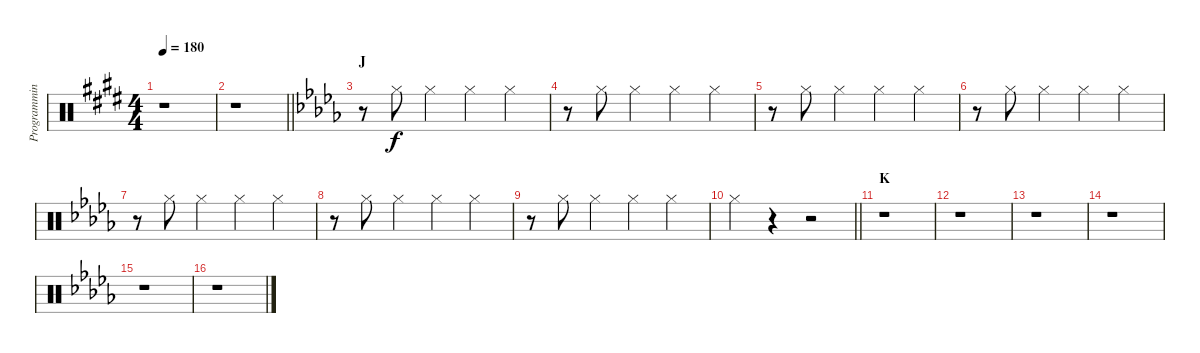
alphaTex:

\track ("Programming" "Programmin") {instrument percussion}
\staff {score}
\articulation defaults
\ts (4 4)
\tempo 180
\clef neutral
\ks e
r.1{dy f} |
\barLineRight lightlight
r.1 |
\section ("" "J")
\ks db
r.8 "Hi-Hat (closed)".8 "Hi-Hat (closed)".4 "Hi-Hat (closed)".4 "Hi-Hat (closed)".4 |
r.8 "Hi-Hat (closed)".8 "Hi-Hat (closed)".4 "Hi-Hat (closed)".4 "Hi-Hat (closed)".4 |
r.8 "Hi-Hat (closed)".8 "Hi-Hat (closed)".4 "Hi-Hat (closed)".4 "Hi-Hat (closed)".4 |
r.8 "Hi-Hat (closed)".8 "Hi-Hat (closed)".4 "Hi-Hat (closed)".4 "Hi-Hat (closed)".4 |
r.8 "Hi-Hat (closed)".8 "Hi-Hat (closed)".4 "Hi-Hat (closed)".4 "Hi-Hat (closed)".4 |
r.8 "Hi-Hat (closed)".8 "Hi-Hat (closed)".4 "Hi-Hat (closed)".4 "Hi-Hat (closed)".4 |
r.8 "Hi-Hat (closed)".8 "Hi-Hat (closed)".4 "Hi-Hat (closed)".4 "Hi-Hat (closed)".4 |
\barLineRight lightlight "Hi-Hat (closed)".4
r.4 r.2 |
\section ("" "K")
r.1 |
r.1 |
r.1 |
r.1 |
r.1 |
r.1
